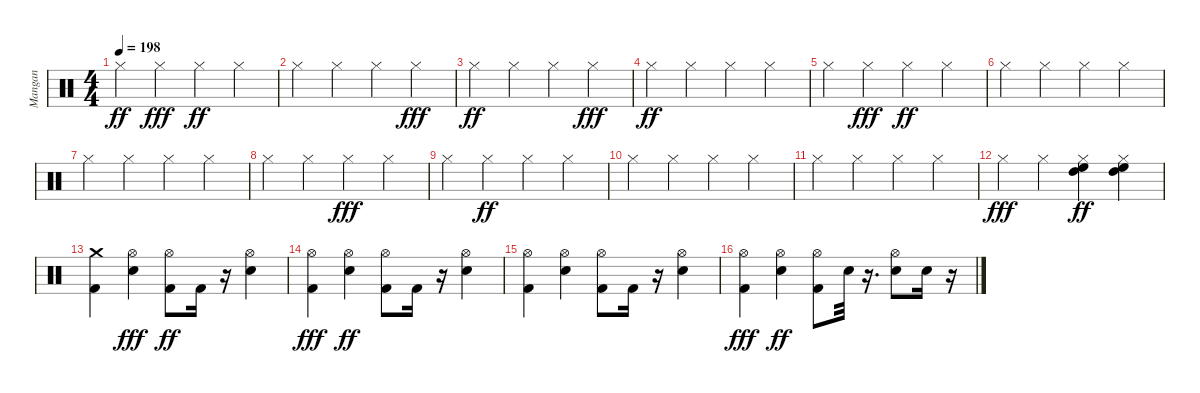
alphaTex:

\track ("Mangan" "Mangan") {instrument percussion}
\staff {score}
\articulation defaults
\ts (4 4)
\tempo 198
\clef neutral
\ks c "Hi-Hat (closed)".4{dy ff} "Hi-Hat (closed)".4{dy fff} "Hi-Hat (closed)".4{dy ff} "Hi-Hat (closed)".4
|
"Hi-Hat (closed)".4 "Hi-Hat (closed)".4 "Hi-Hat (closed)".4 "Hi-Hat (closed)".4{dy fff} |
"Hi-Hat (closed)".4{dy ff} "Hi-Hat (closed)".4 "Hi-Hat (closed)".4 "Hi-Hat (closed)".4{dy fff} |
"Hi-Hat (closed)".4{dy ff} "Hi-Hat (closed)".4 "Hi-Hat (closed)".4 "Hi-Hat (closed)".4 |
"Hi-Hat (closed)".4 "Hi-Hat (closed)".4{dy fff} "Hi-Hat (closed)".4{dy ff} "Hi-Hat (closed)".4 |
"Hi-Hat (closed)".4 "Hi-Hat (closed)".4 "Hi-Hat (closed)".4 "Hi-Hat (closed)".4 |
"Hi-Hat (closed)".4 "Hi-Hat (closed)".4 "Hi-Hat (closed)".4 "Hi-Hat (closed)".4 |
"Hi-Hat (closed)".4 "Hi-Hat (closed)".4 "Hi-Hat (closed)".4{dy fff} "Hi-Hat (closed)".4 |
"Hi-Hat (closed)".4 "Hi-Hat (closed)".4{dy ff} "Hi-Hat (closed)".4 "Hi-Hat (closed)".4 |
"Hi-Hat (closed)".4 "Hi-Hat (closed)".4 "Hi-Hat (closed)".4 "Hi-Hat (closed)".4 |
"Hi-Hat (closed)".4 "Hi-Hat (closed)".4 "Hi-Hat (closed)".4 "Hi-Hat (closed)".4 |
"Hi-Hat (closed)".4{dy fff} "Hi-Hat (closed)".4 ("Hi-Hat (closed)" "High Tom (hit)" "High Floor Tom (hit)").4{dy ff} ("Hi-Hat (closed)" "High Tom (hit)" "High Floor Tom (hit)").4 |
("Kick (hit) 2" "Crash medium (hit)").4 ("Snare (hit) 2" "Hi-Hat (open)").4{dy fff} ("Kick (hit) 2" "Hi-Hat (open)").8{dy ff} "Kick (hit) 2".16 r.16 ("Snare (hit) 2" "Hi-Hat (open)").4 |
("Kick (hit) 2" "Hi-Hat (open)").4{dy fff} ("Snare (hit) 2" "Hi-Hat (open)").4{dy ff} ("Kick (hit) 2" "Hi-Hat (open)").8 "Kick (hit) 2".16 r.16 ("Snare (hit) 2" "Hi-Hat (open)").4 |
("Kick (hit) 2" "Hi-Hat (open)").4 ("Snare (hit) 2" "Hi-Hat (open)").4 ("Kick (hit) 2" "Hi-Hat (open)").8 "Kick (hit) 2".16 r.16 ("Snare (hit) 2" "Hi-Hat (open)").4 |
("Kick (hit) 2" "Hi-Hat (open)").4{dy fff} ("Snare (hit) 2" "Hi-Hat (open)").4{dy ff} ("Kick (hit) 2" "Hi-Hat (open)").8 "Snare (hit) 2".32 r.16{d} ("Snare (hit) 2" "Hi-Hat (open)").8 "Snare (hit) 2".16 r.16
